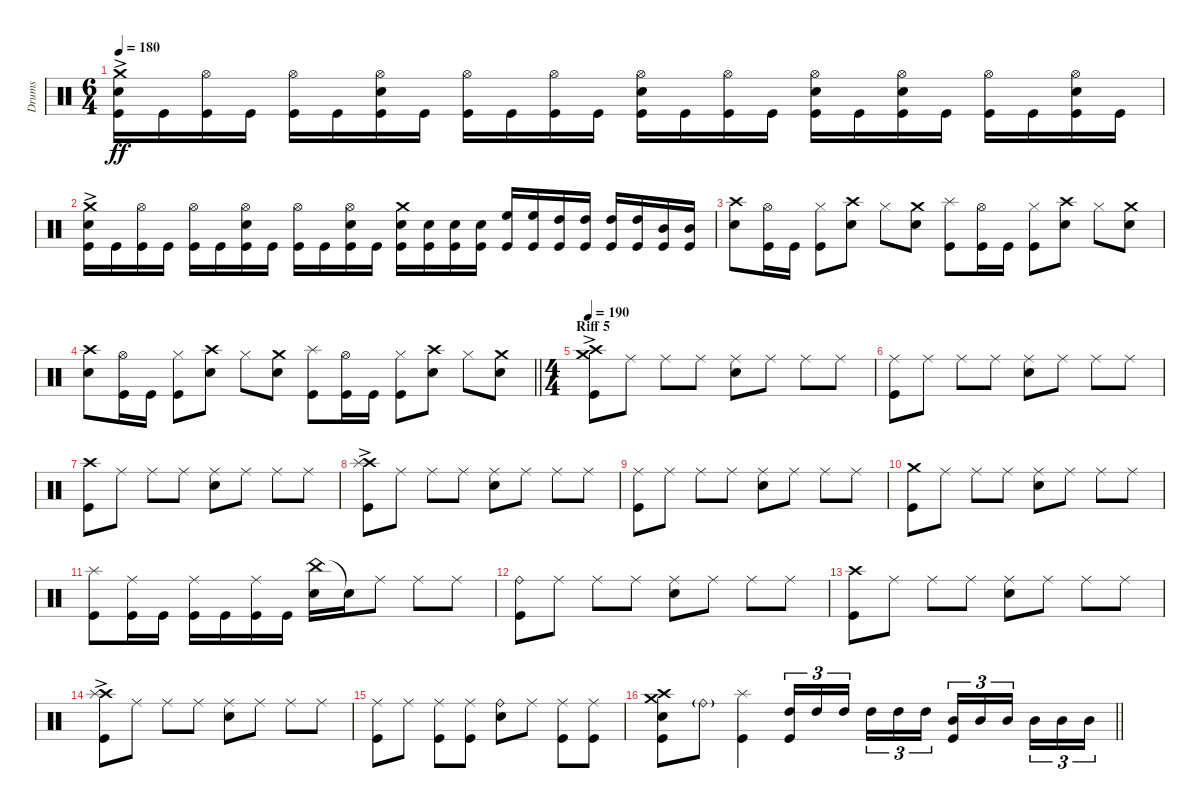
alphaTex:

\track ("Drums" "Drums") {instrument percussion}
\staff {score}
\articulation defaults
\ts (6 4)
\tempo 180
\clef neutral
\ks c
("Crash medium (hit)"{ac} "Electric Snare (hit)" "Kick (hit)").16{dy ff} "Kick (hit)".16 ("Hi-Hat (open)" "Kick (hit)").16 "Kick (hit)".16 ("Hi-Hat (open)" "Kick (hit)").16 "Kick (hit)".16 ("Hi-Hat (open)" "Electric Snare (hit)" "Kick (hit)").16 "Kick (hit)".16 ("Hi-Hat (open)" "Kick (hit)").16 "Kick (hit)".16 ("Hi-Hat (open)" "Kick (hit)").16 "Kick (hit)".16 ("Hi-Hat (open)" "Electric Snare (hit)" "Kick (hit)").16 "Kick (hit)".16 ("Hi-Hat (open)" "Kick (hit)").16 "Kick (hit)".16 ("Hi-Hat (open)" "Electric Snare (hit)" "Kick (hit)").16 "Kick (hit)".16 ("Hi-Hat (open)" "Electric Snare (hit)" "Kick (hit)").16 "Kick (hit)".16 ("Hi-Hat (open)" "Kick (hit)").16 "Kick (hit)".16 ("Hi-Hat (open)" "Electric Snare (hit)" "Kick (hit)").16 "Kick (hit)".16 |
("Crash medium (hit)"{ac} "Electric Snare (hit)" "Kick (hit)").16 "Kick (hit)".16 ("Hi-Hat (open)" "Kick (hit)").16 "Kick (hit)".16 ("Hi-Hat (open)" "Kick (hit)").16 "Kick (hit)".16 ("Hi-Hat (open)" "Electric Snare (hit)" "Kick (hit)").16 "Kick (hit)".16 ("Hi-Hat (open)" "Kick (hit)").16 "Kick (hit)".16 ("Hi-Hat (open)" "Electric Snare (hit)" "Kick (hit)").16 "Kick (hit)".16 ("Crash medium (hit)" "Electric Snare (hit)" "Kick (hit)").16 ("Electric Snare (hit)" "Kick (hit)").16 ("Electric Snare (hit)" "Kick (hit)").16 ("Electric Snare (hit)" "Kick (hit)").16 ("High Floor Tom (hit)" "Kick (hit)").16 ("High Floor Tom (hit)" "Kick (hit)").16 ("High Tom (hit)" "Kick (hit)").16 ("High Tom (hit)" "Kick (hit)").16 ("High Tom (hit)" "Kick (hit)").16 ("High Tom (hit)" "Kick (hit)").16 ("Mid Tom (hit)" "Kick (hit)").16 ("Mid Tom (hit)" "Kick (hit)").16 |
("Crash high (hit)" "Electric Snare (hit)").8 ("Hi-Hat (open)" "Kick (hit)").16 "Kick (hit)".16 ("Hi-Hat (closed)" "Kick (hit)").8 ("Crash high (hit)" "Electric Snare (hit)").8 "Hi-Hat (closed)".8 ("Crash medium (hit)" "Electric Snare (hit)").8 ("Splash (hit)" "Kick (hit)").8 ("Hi-Hat (open)" "Kick (hit)").16 "Kick (hit)".16 ("Hi-Hat (closed)" "Kick (hit)").8 ("Crash high (hit)" "Electric Snare (hit)").8 "Hi-Hat (closed)".8 ("Crash medium (hit)" "Electric Snare (hit)").8 |
\barLineRight lightlight
("Crash high (hit)" "Electric Snare (hit)").8 ("Hi-Hat (open)" "Kick (hit)").16 "Kick (hit)".16 ("Hi-Hat (closed)" "Kick (hit)").8 ("Crash high (hit)" "Electric Snare (hit)").8 "Hi-Hat (closed)".8 ("Crash medium (hit)" "Electric Snare (hit)").8 ("Splash (hit)" "Kick (hit)").8 ("Hi-Hat (open)" "Kick (hit)").16 "Kick (hit)".16 ("Hi-Hat (closed)" "Kick (hit)").8 ("Crash high (hit)" "Electric Snare (hit)").8 "Hi-Hat (closed)".8 ("Crash medium (hit)" "Electric Snare (hit)").8 |
\ts (4 4)
\section ("" "Riff 5")
\tempo 190
("Crash high (hit)" "Crash medium (hit)"{ac} "Kick (hit)").8 "Ride (middle)".8 "Ride (middle)".8 "Ride (middle)".8 ("Ride (middle)" "Electric Snare (hit)").8 "Ride (middle)".8 "Ride (middle)".8 "Ride (middle)".8 |
("Ride (middle)" "Kick (hit)").8 "Ride (middle)".8 "Ride (middle)".8 "Ride (middle)".8 ("Ride (middle)" "Electric Snare (hit)").8 "Ride (middle)".8 "Ride (middle)".8 "Ride (middle)".8 |
("Crash high (hit)" "Kick (hit)").8 "Ride (middle)".8 "Ride (middle)".8 "Ride (middle)".8 ("Ride (middle)" "Electric Snare (hit)").8 "Ride (middle)".8 "Ride (middle)".8 "Ride (middle)".8 |
("Crash high (hit)" "Splash (hit)"{ac} "Kick (hit)").8 "Ride (middle)".8 "Ride (middle)".8 "Ride (middle)".8 ("Ride (middle)" "Electric Snare (hit)").8 "Ride (middle)".8 "Ride (middle)".8 "Ride (middle)".8 |
("Ride (middle)" "Kick (hit)").8 "Ride (middle)".8 "Ride (middle)".8 "Ride (middle)".8 ("Ride (middle)" "Electric Snare (hit)").8 "Ride (middle)".8 "Ride (middle)".8 "Ride (middle)".8 |
("Crash medium (hit)" "Kick (hit)").8 "Ride (middle)".8 "Ride (middle)".8 "Ride (middle)".8 ("Ride (middle)" "Electric Snare (hit)").8 "Ride (middle)".8 "Ride (middle)".8 "Ride (middle)".8 |
("Splash (hit)" "Kick (hit)").8 ("Ride (middle)" "Kick (hit)").16 "Kick (hit)".16 ("Ride (middle)" "Kick (hit)").16 "Kick (hit)".16 ("Ride (middle)" "Kick (hit)").16 "Kick (hit)".16 ("China (hit)" "Electric Snare (hit)").16 "Snare (hit)"{t}.16 "Ride (middle)".8 "Ride (middle)".8 "Ride (middle)".8 |
("Ride (bell)" "Kick (hit)").8 "Ride (middle)".8 "Ride (middle)".8 "Ride (middle)".8 ("Ride (middle)" "Electric Snare (hit)").8 "Ride (middle)".8 "Ride (middle)".8 "Ride (middle)".8 |
("Crash high (hit)" "Kick (hit)").8 "Ride (middle)".8 "Ride (middle)".8 "Ride (middle)".8 ("Ride (middle)" "Electric Snare (hit)").8 "Ride (middle)".8 "Ride (middle)".8 "Ride (middle)".8 |
("Crash high (hit)" "Splash (hit)"{ac} "Kick (hit)").8 "Ride (middle)".8 "Ride (middle)".8 "Ride (middle)".8 ("Ride (middle)" "Electric Snare (hit)").8 "Ride (middle)".8 "Ride (middle)".8 "Ride (middle)".8 |
("Ride (middle)" "Kick (hit)").8 "Ride (middle)".8 ("Ride (middle)" "Kick (hit)").8 ("Ride (middle)" "Kick (hit)").8 ("Ride (bell)" "Electric Snare (hit)").8 "Ride (middle)".8 ("Ride (middle)" "Kick (hit)").8 ("Ride (middle)" "Kick (hit)").8 |
\barLineRight lightlight
("Crash high (hit)" "Crash medium (hit)" "Electric Snare (hit)" "Kick (hit)").8 "Ride (bell)"{g}.8 ("Splash (hit)" "Kick (hit)").4 ("High Tom (hit)" "Kick (hit)").16{tu (3 2)} "High Tom (hit)".16{tu (3 2)} "High Tom (hit)".16{tu (3 2) beam splitsecondary} "High Tom (hit)".16{tu (3 2)} "High Tom (hit)".16{tu (3 2)} "High Tom (hit)".16{tu (3 2)} ("Mid Tom (hit)" "Kick (hit)").16{tu (3 2)} "Mid Tom (hit)".16{tu (3 2)} "Mid Tom (hit)".16{tu (3 2) beam splitsecondary} "Mid Tom (hit)".16{tu (3 2)} "Mid Tom (hit)".16{tu (3 2)} "Mid Tom (hit)".16{tu (3 2)}
